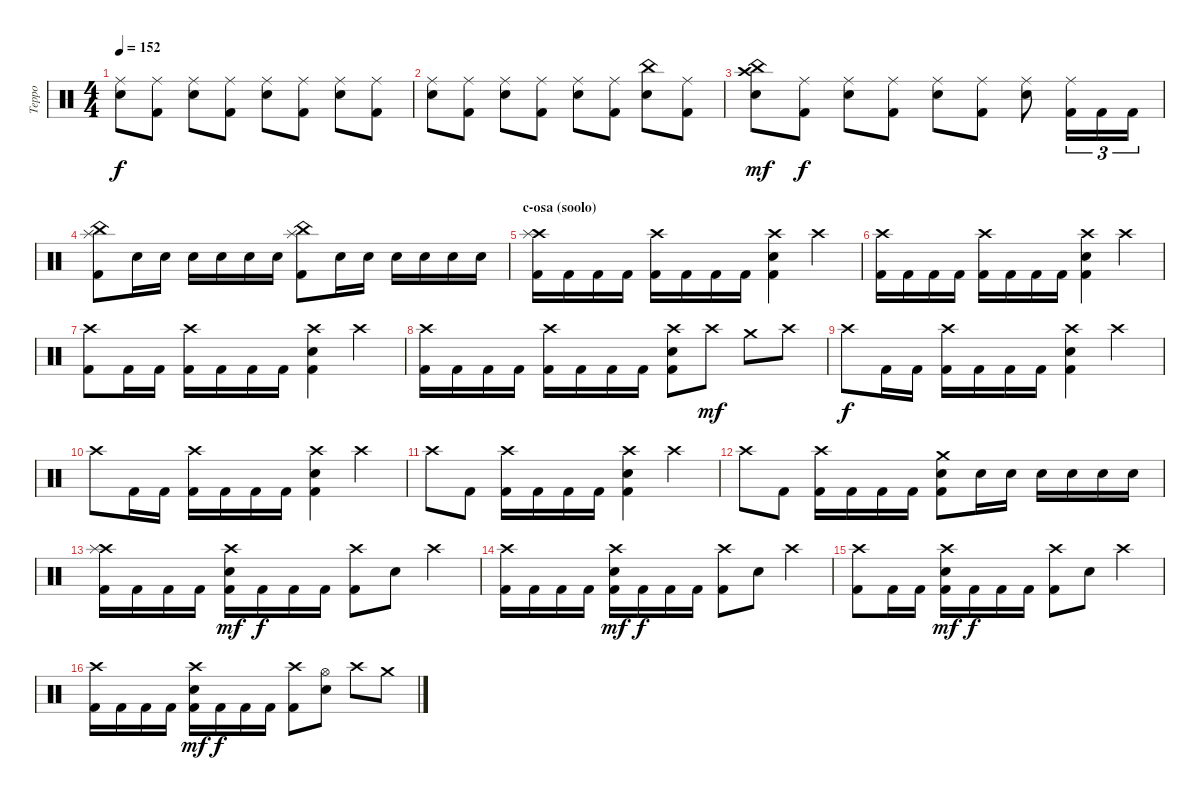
\track ("Teppo" "Teppo") {instrument percussion}
\staff {score}
\articulation defaults
\ts (4 4)
\tempo 152
\clef neutral
\ks c
("Ride (middle)" "Electric Snare (hit)").8{dy f} ("Ride (middle)" "Kick (hit) 2").8 ("Ride (middle)" "Electric Snare (hit)").8 ("Ride (middle)" "Kick (hit) 2").8 ("Ride (middle)" "Electric Snare (hit)").8 ("Ride (middle)" "Kick (hit) 2").8 ("Ride (middle)" "Electric Snare (hit)").8 ("Ride (middle)" "Kick (hit) 2").8 |
("Ride (middle)" "Electric Snare (hit)").8 ("Ride (middle)" "Kick (hit) 2").8 ("Ride (middle)" "Electric Snare (hit)").8 ("Ride (middle)" "Kick (hit) 2").8 ("Ride (middle)" "Electric Snare (hit)").8 ("Ride (middle)" "Kick (hit) 2").8 ("China (hit)" "Electric Snare (hit)").8 ("Ride (middle)" "Kick (hit) 2").8 |
("China (hit)" "Crash high (hit)" "Electric Snare (hit)").8{dy mf} ("Ride (middle)" "Kick (hit) 2").8{dy f} ("Ride (middle)" "Electric Snare (hit)").8 ("Ride (middle)" "Kick (hit) 2").8 ("Ride (middle)" "Electric Snare (hit)").8 ("Ride (middle)" "Kick (hit) 2").8 ("Ride (middle)" "Electric Snare (hit)").8 ("Ride (middle)" "Kick (hit) 2").16{tu (3 2)} "Kick (hit) 2".16{tu (3 2)} "Kick (hit) 2".16{tu (3 2)} |
("Splash (hit)" "China (hit)" "Kick (hit) 2").8 "Electric Snare (hit)".16 "Electric Snare (hit)".16 "Electric Snare (hit)".16 "Electric Snare (hit)".16 "Electric Snare (hit)".16 "Electric Snare (hit)".16 ("Splash (hit)" "China (hit)" "Kick (hit) 2").8 "Electric Snare (hit)".16 "Electric Snare (hit)".16 "Electric Snare (hit)".16 "Electric Snare (hit)".16 "Electric Snare (hit)".16 "Electric Snare (hit)".16 |
\section ("" "c-osa (soolo)")
("Crash high (hit)" "Splash (hit)" "Kick (hit) 2").16 "Kick (hit) 2".16 "Kick (hit) 2".16 "Kick (hit) 2".16 ("Crash high (hit)" "Kick (hit) 2").16 "Kick (hit) 2".16 "Kick (hit) 2".16 "Kick (hit) 2".16 ("Crash high (hit)" "Electric Snare (hit)" "Kick (hit) 2").4 "Crash high (hit)".4 |
("Crash high (hit)" "Kick (hit) 2").16 "Kick (hit) 2".16 "Kick (hit) 2".16 "Kick (hit) 2".16 ("Crash high (hit)" "Kick (hit) 2").16 "Kick (hit) 2".16 "Kick (hit) 2".16 "Kick (hit) 2".16 ("Crash high (hit)" "Electric Snare (hit)" "Kick (hit) 2").4 "Crash high (hit)".4 |
("Crash high (hit)" "Kick (hit) 2").8 "Kick (hit) 2".16 "Kick (hit) 2".16 ("Crash high (hit)" "Kick (hit) 2").16 "Kick (hit) 2".16 "Kick (hit) 2".16 "Kick (hit) 2".16 ("Crash high (hit)" "Electric Snare (hit)" "Kick (hit) 2").4 "Crash high (hit)".4 |
("Crash high (hit)" "Kick (hit) 2").16 "Kick (hit) 2".16 "Kick (hit) 2".16 "Kick (hit) 2".16 ("Crash high (hit)" "Kick (hit) 2").16 "Kick (hit) 2".16 "Kick (hit) 2".16 "Kick (hit) 2".16 ("Crash high (hit)" "Electric Snare (hit)" "Kick (hit) 2").8 "Crash high (hit)".8{dy mf} "Crash medium (hit)".8 "Crash high (hit)".8 |
"Crash high (hit)".8{dy f} "Kick (hit) 2".16 "Kick (hit) 2".16 ("Crash high (hit)" "Kick (hit) 2").16 "Kick (hit) 2".16 "Kick (hit) 2".16 "Kick (hit) 2".16 ("Crash high (hit)" "Electric Snare (hit)" "Kick (hit) 2").4 "Crash high (hit)".4 |
"Crash high (hit)".8 "Kick (hit) 2".16 "Kick (hit) 2".16 ("Crash high (hit)" "Kick (hit) 2").16 "Kick (hit) 2".16 "Kick (hit) 2".16 "Kick (hit) 2".16 ("Crash high (hit)" "Electric Snare (hit)" "Kick (hit) 2").4 "Crash high (hit)".4 |
"Crash high (hit)".8 "Kick (hit) 2".8 ("Crash high (hit)" "Kick (hit) 2").16 "Kick (hit) 2".16 "Kick (hit) 2".16 "Kick (hit) 2".16 ("Crash high (hit)" "Electric Snare (hit)" "Kick (hit) 2").4 "Crash high (hit)".4 |
"Crash high (hit)".8 "Kick (hit) 2".8 ("Crash high (hit)" "Kick (hit) 2").16 "Kick (hit) 2".16 "Kick (hit) 2".16 "Kick (hit) 2".16 ("Crash medium (hit)" "Electric Snare (hit)" "Kick (hit) 2").8 "Electric Snare (hit)".16 "Electric Snare (hit)".16 "Electric Snare (hit)".16 "Electric Snare (hit)".16 "Electric Snare (hit)".16 "Electric Snare (hit)".16 |
("Crash high (hit)" "Splash (hit)" "Kick (hit) 2").16 "Kick (hit) 2".16 "Kick (hit) 2".16 "Kick (hit) 2".16 ("Crash high (hit)" "Electric Snare (hit)" "Kick (hit) 2").16{dy mf} "Kick (hit) 2".16{dy f} "Kick (hit) 2".16 "Kick (hit) 2".16 ("Crash high (hit)" "Kick (hit) 2").8 "Electric Snare (hit)".8 "Crash high (hit)".4 |
("Crash high (hit)" "Kick (hit) 2").16 "Kick (hit) 2".16 "Kick (hit) 2".16 "Kick (hit) 2".16 ("Crash high (hit)" "Electric Snare (hit)" "Kick (hit) 2").16{dy mf} "Kick (hit) 2".16{dy f} "Kick (hit) 2".16 "Kick (hit) 2".16 ("Crash high (hit)" "Kick (hit) 2").8 "Electric Snare (hit)".8 "Crash high (hit)".4 |
("Crash high (hit)" "Kick (hit) 2").8 "Kick (hit) 2".16 "Kick (hit) 2".16 ("Crash high (hit)" "Electric Snare (hit)" "Kick (hit) 2").16{dy mf} "Kick (hit) 2".16{dy f} "Kick (hit) 2".16 "Kick (hit) 2".16 ("Crash high (hit)" "Kick (hit) 2").8 "Electric Snare (hit)".8 "Crash high (hit)".4 |
("Crash high (hit)" "Kick (hit) 2").16 "Kick (hit) 2".16 "Kick (hit) 2".16 "Kick (hit) 2".16 ("Crash high (hit)" "Electric Snare (hit)" "Kick (hit) 2").16{dy mf} "Kick (hit) 2".16{dy f} "Kick (hit) 2".16 "Kick (hit) 2".16 ("Crash high (hit)" "Kick (hit) 2").8 ("Hi-Hat (open)" "Electric Snare (hit)").8 "Crash high (hit)".8 "Crash medium (hit)".8
